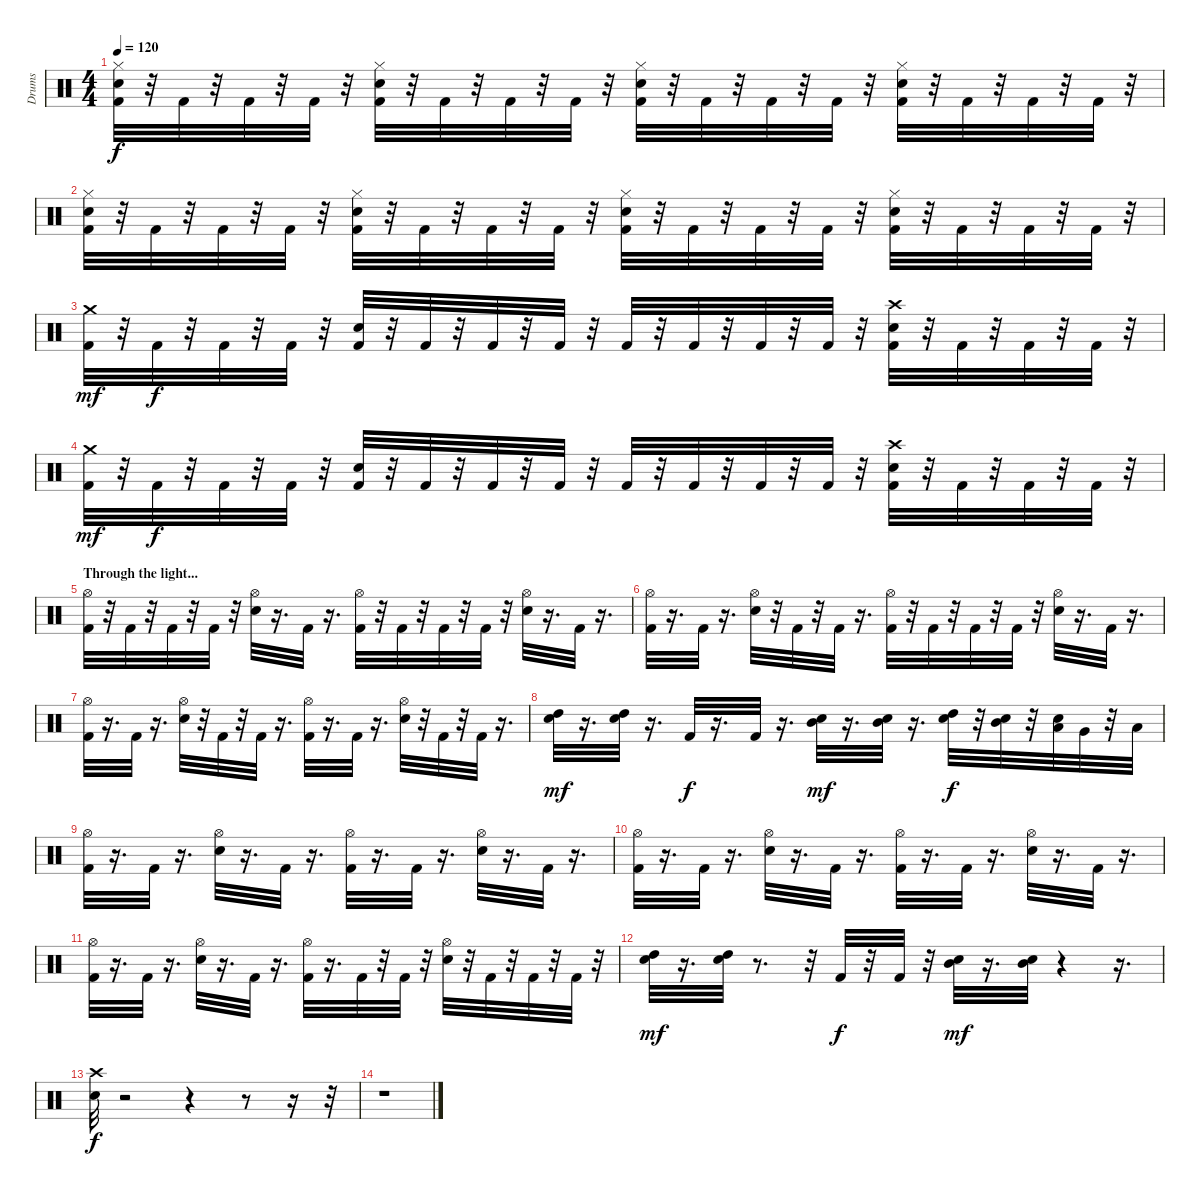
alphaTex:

\track ("Drums" "Drums") {instrument percussion}
\staff {score}
\articulation defaults
\ts (4 4)
\tempo 120
\clef neutral
\ks c
("Kick (hit) 2" "Snare (hit) 2" "Hi-Hat (closed)").32{dy f} r.32 "Kick (hit) 2".32 r.32 "Kick (hit) 2".32 r.32 "Kick (hit) 2".32 r.32 ("Kick (hit) 2" "Snare (hit) 2" "Hi-Hat (closed)").32 r.32 "Kick (hit) 2".32 r.32 "Kick (hit) 2".32 r.32 "Kick (hit) 2".32 r.32 ("Kick (hit) 2" "Snare (hit) 2" "Hi-Hat (closed)").32 r.32 "Kick (hit) 2".32 r.32 "Kick (hit) 2".32 r.32 "Kick (hit) 2".32 r.32 ("Kick (hit) 2" "Snare (hit) 2" "Hi-Hat (closed)").32 r.32 "Kick (hit) 2".32 r.32 "Kick (hit) 2".32 r.32 "Kick (hit) 2".32 r.32 |
("Kick (hit) 2" "Snare (hit) 2" "Hi-Hat (closed)").32 r.32 "Kick (hit) 2".32 r.32 "Kick (hit) 2".32 r.32 "Kick (hit) 2".32 r.32 ("Kick (hit) 2" "Snare (hit) 2" "Hi-Hat (closed)").32 r.32 "Kick (hit) 2".32 r.32 "Kick (hit) 2".32 r.32 "Kick (hit) 2".32 r.32 ("Kick (hit) 2" "Snare (hit) 2" "Hi-Hat (closed)").32 r.32 "Kick (hit) 2".32 r.32 "Kick (hit) 2".32 r.32 "Kick (hit) 2".32 r.32 ("Kick (hit) 2" "Snare (hit) 2" "Hi-Hat (closed)").32 r.32 "Kick (hit) 2".32 r.32 "Kick (hit) 2".32 r.32 "Kick (hit) 2".32 r.32 |
("Kick (hit) 2" "Crash medium (hit)").32{dy mf} r.32 "Kick (hit) 2".32{dy f} r.32 "Kick (hit) 2".32 r.32 "Kick (hit) 2".32 r.32 ("Kick (hit) 2" "Snare (hit) 2").32 r.32 "Kick (hit) 2".32 r.32 "Kick (hit) 2".32 r.32 "Kick (hit) 2".32 r.32 "Kick (hit) 2".32 r.32 "Kick (hit) 2".32 r.32 "Kick (hit) 2".32 r.32 "Kick (hit) 2".32 r.32 ("Kick (hit) 2" "Snare (hit) 2" "Crash high (hit)").32 r.32 "Kick (hit) 2".32 r.32 "Kick (hit) 2".32 r.32 "Kick (hit) 2".32 r.32 |
("Kick (hit) 2" "Crash medium (hit)").32{dy mf} r.32 "Kick (hit) 2".32{dy f} r.32 "Kick (hit) 2".32 r.32 "Kick (hit) 2".32 r.32 ("Kick (hit) 2" "Snare (hit) 2").32 r.32 "Kick (hit) 2".32 r.32 "Kick (hit) 2".32 r.32 "Kick (hit) 2".32 r.32 "Kick (hit) 2".32 r.32 "Kick (hit) 2".32 r.32 "Kick (hit) 2".32 r.32 "Kick (hit) 2".32 r.32 ("Kick (hit) 2" "Snare (hit) 2" "Crash high (hit)").32 r.32 "Kick (hit) 2".32 r.32 "Kick (hit) 2".32 r.32 "Kick (hit) 2".32 r.32 |
\section ("" "Through the light...")
("Kick (hit) 2" "Hi-Hat (open)").32 r.32 "Kick (hit) 2".32 r.32 "Kick (hit) 2".32 r.32 "Kick (hit) 2".32 r.32 ("Snare (hit) 2" "Hi-Hat (open)").32 r.16{d} "Kick (hit) 2".32 r.16{d} ("Kick (hit) 2" "Hi-Hat (open)").32 r.32 "Kick (hit) 2".32 r.32 "Kick (hit) 2".32 r.32 "Kick (hit) 2".32 r.32 ("Snare (hit) 2" "Hi-Hat (open)").32 r.16{d} "Kick (hit) 2".32 r.16{d} |
("Kick (hit) 2" "Hi-Hat (open)").32 r.16{d} "Kick (hit) 2".32 r.16{d} ("Snare (hit) 2" "Hi-Hat (open)").32 r.32 "Kick (hit) 2".32 r.32 "Kick (hit) 2".32 r.16{d} ("Kick (hit) 2" "Hi-Hat (open)").32 r.32 "Kick (hit) 2".32 r.32 "Kick (hit) 2".32 r.32 "Kick (hit) 2".32 r.32 ("Snare (hit) 2" "Hi-Hat (open)").32 r.16{d} "Kick (hit) 2".32 r.16{d} |
("Kick (hit) 2" "Hi-Hat (open)").32 r.16{d} "Kick (hit) 2".32 r.16{d} ("Snare (hit) 2" "Hi-Hat (open)").32 r.32 "Kick (hit) 2".32 r.32 "Kick (hit) 2".32 r.16{d} ("Kick (hit) 2" "Hi-Hat (open)").32 r.16{d} "Kick (hit) 2".32 r.16{d} ("Snare (hit) 2" "Hi-Hat (open)").32 r.32 "Kick (hit) 2".32 r.32 "Kick (hit) 2".32 r.16{d} |
("Snare (hit) 2" "High Tom (hit)").32{dy mf} r.16{d} ("Snare (hit) 2" "High Tom (hit)").32 r.16{d} "Kick (hit) 2".32{dy f} r.16{d} "Kick (hit) 2".32 r.16{d} ("Snare (hit) 2" "Mid Tom (hit)").32{dy mf} r.16{d} ("Snare (hit) 2" "Mid Tom (hit)").32 r.16{d} ("Snare (hit) 2" "High Tom (hit)").32{dy f} r.32 ("Snare (hit) 2" "Mid Tom (hit)").32 r.32 ("Snare (hit) 2" "Low Tom (hit)").32 "Very Low Tom (hit)".32 r.32 "Low Floor Tom (hit)".32 |
("Kick (hit) 2" "Hi-Hat (open)").32 r.16{d} "Kick (hit) 2".32 r.16{d} ("Snare (hit) 2" "Hi-Hat (open)").32 r.16{d} "Kick (hit) 2".32 r.16{d} ("Kick (hit) 2" "Hi-Hat (open)").32 r.16{d} "Kick (hit) 2".32 r.16{d} ("Snare (hit) 2" "Hi-Hat (open)").32 r.16{d} "Kick (hit) 2".32 r.16{d} |
("Kick (hit) 2" "Hi-Hat (open)").32 r.16{d} "Kick (hit) 2".32 r.16{d} ("Snare (hit) 2" "Hi-Hat (open)").32 r.16{d} "Kick (hit) 2".32 r.16{d} ("Kick (hit) 2" "Hi-Hat (open)").32 r.16{d} "Kick (hit) 2".32 r.16{d} ("Snare (hit) 2" "Hi-Hat (open)").32 r.16{d} "Kick (hit) 2".32 r.16{d} |
("Kick (hit) 2" "Hi-Hat (open)").32 r.16{d} "Kick (hit) 2".32 r.16{d} ("Snare (hit) 2" "Hi-Hat (open)").32 r.16{d} "Kick (hit) 2".32 r.16{d} ("Kick (hit) 2" "Hi-Hat (open)").32 r.16{d} "Kick (hit) 2".32 r.32 "Kick (hit) 2".32 r.32 ("Snare (hit) 2" "Hi-Hat (open)").32 r.32 "Kick (hit) 2".32 r.32 "Kick (hit) 2".32 r.32 "Kick (hit) 2".32 r.32 |
("Snare (hit) 2" "High Tom (hit)").32{dy mf} r.16{d} ("Snare (hit) 2" "High Tom (hit)").32 r.8{d} r.32 "Kick (hit) 2".32{dy f} r.32 "Kick (hit) 2".32 r.32 ("Snare (hit) 2" "Mid Tom (hit)").32{dy mf} r.16{d} ("Snare (hit) 2" "Mid Tom (hit)").32 r.4 r.16{d} |
("Snare (hit) 2" "Crash high (hit)").32{dy f} r.2 r.4 r.8 r.16 r.32 |
r.1
